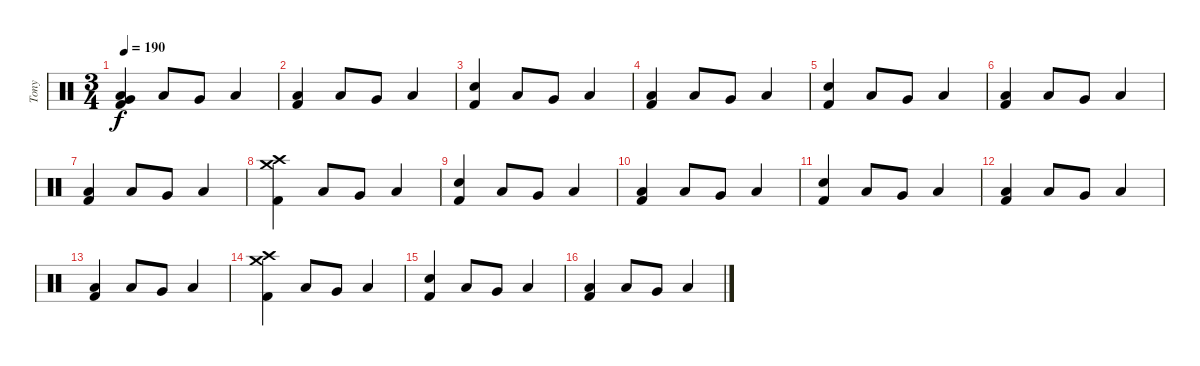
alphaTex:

\track ("Tony" "Tony") {instrument percussion}
\staff {score}
\articulation defaults
\ts (3 4)
\tempo 190
\clef neutral
\ks c
("Low Tom (hit)" "Very Low Tom (hit)" "Kick (hit) 2").4{dy f} "Low Tom (hit)".8 "Very Low Tom (hit)".8 "Low Tom (hit)".4 |
("Low Tom (hit)" "Kick (hit) 2").4 "Low Tom (hit)".8 "Very Low Tom (hit)".8 "Low Tom (hit)".4 |
("Snare (hit) 2" "Kick (hit) 2").4 "Low Tom (hit)".8 "Very Low Tom (hit)".8 "Low Tom (hit)".4 |
("Low Tom (hit)" "Kick (hit) 2").4 "Low Tom (hit)".8 "Very Low Tom (hit)".8 "Low Tom (hit)".4 |
("Snare (hit) 2" "Kick (hit) 2").4 "Low Tom (hit)".8 "Very Low Tom (hit)".8 "Low Tom (hit)".4 |
("Low Tom (hit)" "Kick (hit) 2").4 "Low Tom (hit)".8 "Very Low Tom (hit)".8 "Low Tom (hit)".4 |
("Low Tom (hit)" "Kick (hit) 2").4 "Low Tom (hit)".8 "Very Low Tom (hit)".8 "Low Tom (hit)".4 |
("Crash high (hit)" "Crash medium (hit)" "Kick (hit) 2").4 "Low Tom (hit)".8 "Very Low Tom (hit)".8 "Low Tom (hit)".4 |
("Snare (hit) 2" "Kick (hit) 2").4 "Low Tom (hit)".8 "Very Low Tom (hit)".8 "Low Tom (hit)".4 |
("Low Tom (hit)" "Kick (hit) 2").4 "Low Tom (hit)".8 "Very Low Tom (hit)".8 "Low Tom (hit)".4 |
("Snare (hit) 2" "Kick (hit) 2").4 "Low Tom (hit)".8 "Very Low Tom (hit)".8 "Low Tom (hit)".4 |
("Low Tom (hit)" "Kick (hit) 2").4 "Low Tom (hit)".8 "Very Low Tom (hit)".8 "Low Tom (hit)".4 |
("Low Tom (hit)" "Kick (hit) 2").4 "Low Tom (hit)".8 "Very Low Tom (hit)".8 "Low Tom (hit)".4 |
("Crash high (hit)" "Crash medium (hit)" "Kick (hit) 2").4 "Low Tom (hit)".8 "Very Low Tom (hit)".8 "Low Tom (hit)".4 |
("Snare (hit) 2" "Kick (hit) 2").4 "Low Tom (hit)".8 "Very Low Tom (hit)".8 "Low Tom (hit)".4 |
("Low Tom (hit)" "Kick (hit) 2").4 "Low Tom (hit)".8 "Very Low Tom (hit)".8 "Low Tom (hit)".4
